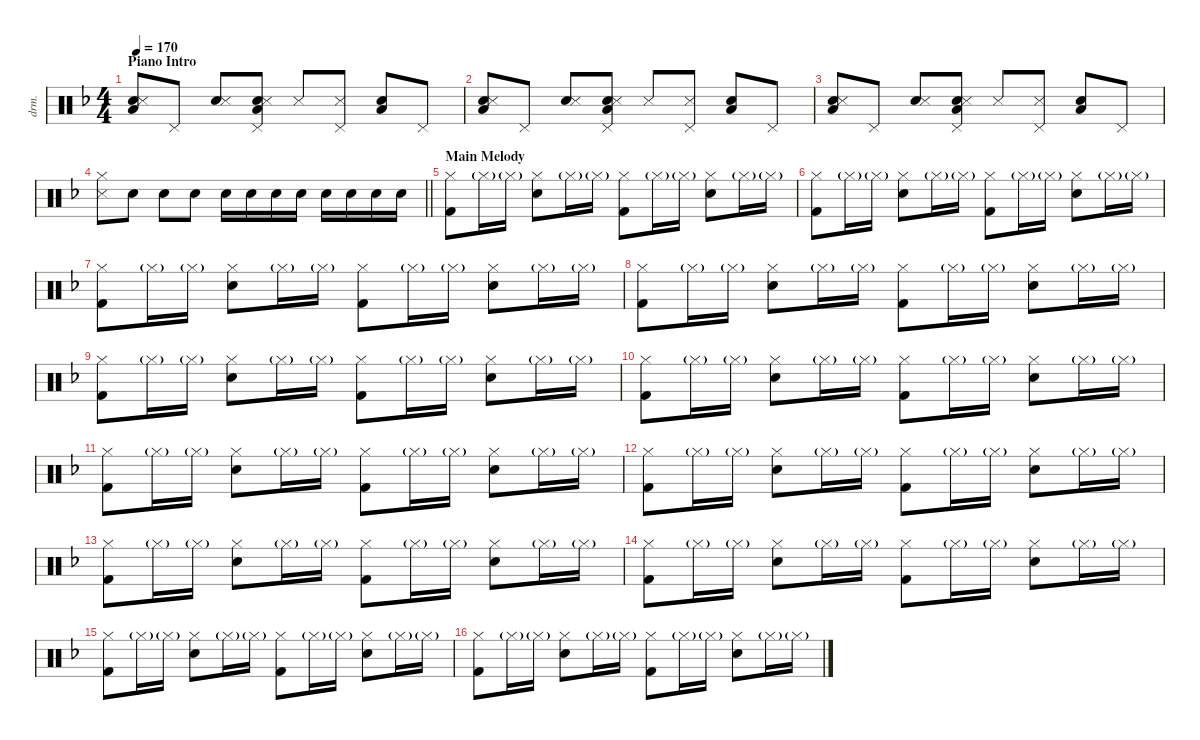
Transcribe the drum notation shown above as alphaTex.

\defaultSystemsLayout 4
\hideDynamics
\bracketExtendMode nobrackets
\otherSystemsTrackNameOrientation horizontal
\track ("Drums" "drm.") {instrument percussion}
\staff {score}
\articulation defaults
\ts (4 4)
\beaming (8 2 2 2 2)
\section ("" "Piano Intro")
\tempo 170
\clef neutral
\ks dminor
("Low Floor Tom (hit)"{acc forcenatural} "Hand Clap (hit)"{acc forcenatural} "Snare (side stick) 3"{acc forcenatural}).8{dy f} "Pedal Hi-Hat (hit)"{acc forcenatural}.8 ("Hand Clap (hit)"{acc forcenatural} "Snare (side stick) 3"{acc forcenatural}).8 ("Pedal Hi-Hat (hit)"{acc forcenatural} "Low Floor Tom (hit)"{acc forcenatural} "Hand Clap (hit)"{acc forcenatural} "Snare (side stick) 3"{acc forcenatural}).8 "Snare (side stick) 3"{acc forcenatural}.8 ("Pedal Hi-Hat (hit)"{acc forcenatural} "Snare (side stick) 3"{acc forcenatural}).8 ("Low Floor Tom (hit)"{acc forcenatural} "Hand Clap (hit)"{acc forcenatural}).8 "Pedal Hi-Hat (hit)"{acc forcenatural}.8 |
("Low Floor Tom (hit)"{acc forcenatural} "Hand Clap (hit)"{acc forcenatural} "Snare (side stick) 3"{acc forcenatural}).8 "Pedal Hi-Hat (hit)"{acc forcenatural}.8 ("Hand Clap (hit)"{acc forcenatural} "Snare (side stick) 3"{acc forcenatural}).8 ("Pedal Hi-Hat (hit)"{acc forcenatural} "Low Floor Tom (hit)"{acc forcenatural} "Hand Clap (hit)"{acc forcenatural} "Snare (side stick) 3"{acc forcenatural}).8 "Snare (side stick) 3"{acc forcenatural}.8 ("Pedal Hi-Hat (hit)"{acc forcenatural} "Snare (side stick) 3"{acc forcenatural}).8 ("Low Floor Tom (hit)"{acc forcenatural} "Hand Clap (hit)"{acc forcenatural}).8 "Pedal Hi-Hat (hit)"{acc forcenatural}.8 |
("Low Floor Tom (hit)"{acc forcenatural} "Hand Clap (hit)"{acc forcenatural} "Snare (side stick) 3"{acc forcenatural}).8 "Pedal Hi-Hat (hit)"{acc forcenatural}.8 ("Hand Clap (hit)"{acc forcenatural} "Snare (side stick) 3"{acc forcenatural}).8 ("Pedal Hi-Hat (hit)"{acc forcenatural} "Low Floor Tom (hit)"{acc forcenatural} "Hand Clap (hit)"{acc forcenatural} "Snare (side stick) 3"{acc forcenatural}).8 "Snare (side stick) 3"{acc forcenatural}.8 ("Pedal Hi-Hat (hit)"{acc forcenatural} "Snare (side stick) 3"{acc forcenatural}).8 ("Low Floor Tom (hit)"{acc forcenatural} "Hand Clap (hit)"{acc forcenatural}).8 "Pedal Hi-Hat (hit)"{acc forcenatural}.8 |
\barLineRight lightlight
("Hi-Hat (closed)"{acc forcenatural} "Snare (side stick) 3"{acc forcenatural}).8 "Snare (hit) 2"{acc forcenatural}.8 "Snare (hit) 2"{acc forcenatural}.8 "Snare (hit) 2"{acc forcenatural}.8 "Snare (hit) 2"{acc forcenatural}.16 "Snare (hit) 2"{acc forcenatural}.16 "Snare (hit) 2"{acc forcenatural}.16 "Snare (hit) 2"{acc forcenatural}.16 "Snare (hit) 2"{acc forcenatural}.16 "Snare (hit) 2"{acc forcenatural}.16 "Snare (hit) 2"{acc forcenatural}.16 "Snare (hit) 2"{acc forcenatural}.16 |
\section ("" "Main Melody")
("Hi-Hat (closed)"{acc forcenatural} "Kick (hit) 2"{acc forcenatural}).8 "Hi-Hat (closed)"{g acc forcenatural}.16{dy mf} "Hi-Hat (closed)"{g acc forcenatural}.16 ("Hi-Hat (closed)"{acc forcenatural} "Snare (hit) 2"{acc forcenatural}).8{dy mp} "Hi-Hat (closed)"{g acc forcenatural}.16{dy mf} "Hi-Hat (closed)"{g acc forcenatural}.16 ("Hi-Hat (closed)"{acc forcenatural} "Kick (hit) 2"{acc forcenatural}).8{dy f} "Hi-Hat (closed)"{g acc forcenatural}.16{dy mf} "Hi-Hat (closed)"{g acc forcenatural}.16 ("Hi-Hat (closed)"{acc forcenatural} "Snare (hit) 2"{acc forcenatural}).8{dy mp} "Hi-Hat (closed)"{g acc forcenatural}.16{dy mf} "Hi-Hat (closed)"{g acc forcenatural}.16 |
("Hi-Hat (closed)"{acc forcenatural} "Kick (hit) 2"{acc forcenatural}).8{dy f} "Hi-Hat (closed)"{g acc forcenatural}.16{dy mf} "Hi-Hat (closed)"{g acc forcenatural}.16 ("Hi-Hat (closed)"{acc forcenatural} "Snare (hit) 2"{acc forcenatural}).8{dy mp} "Hi-Hat (closed)"{g acc forcenatural}.16{dy mf} "Hi-Hat (closed)"{g acc forcenatural}.16 ("Hi-Hat (closed)"{acc forcenatural} "Kick (hit) 2"{acc forcenatural}).8{dy f} "Hi-Hat (closed)"{g acc forcenatural}.16{dy mf} "Hi-Hat (closed)"{g acc forcenatural}.16 ("Hi-Hat (closed)"{acc forcenatural} "Snare (hit) 2"{acc forcenatural}).8{dy mp} "Hi-Hat (closed)"{g acc forcenatural}.16{dy mf} "Hi-Hat (closed)"{g acc forcenatural}.16 |
("Hi-Hat (closed)"{acc forcenatural} "Kick (hit) 2"{acc forcenatural}).8{dy f} "Hi-Hat (closed)"{g acc forcenatural}.16{dy mf} "Hi-Hat (closed)"{g acc forcenatural}.16 ("Hi-Hat (closed)"{acc forcenatural} "Snare (hit) 2"{acc forcenatural}).8{dy mp} "Hi-Hat (closed)"{g acc forcenatural}.16{dy mf} "Hi-Hat (closed)"{g acc forcenatural}.16 ("Hi-Hat (closed)"{acc forcenatural} "Kick (hit) 2"{acc forcenatural}).8{dy f} "Hi-Hat (closed)"{g acc forcenatural}.16{dy mf} "Hi-Hat (closed)"{g acc forcenatural}.16 ("Hi-Hat (closed)"{acc forcenatural} "Snare (hit) 2"{acc forcenatural}).8{dy mp} "Hi-Hat (closed)"{g acc forcenatural}.16{dy mf} "Hi-Hat (closed)"{g acc forcenatural}.16 |
("Hi-Hat (closed)"{acc forcenatural} "Kick (hit) 2"{acc forcenatural}).8{dy f} "Hi-Hat (closed)"{g acc forcenatural}.16{dy mf} "Hi-Hat (closed)"{g acc forcenatural}.16 ("Hi-Hat (closed)"{acc forcenatural} "Snare (hit) 2"{acc forcenatural}).8{dy mp} "Hi-Hat (closed)"{g acc forcenatural}.16{dy mf} "Hi-Hat (closed)"{g acc forcenatural}.16 ("Hi-Hat (closed)"{acc forcenatural} "Kick (hit) 2"{acc forcenatural}).8{dy f} "Hi-Hat (closed)"{g acc forcenatural}.16{dy mf} "Hi-Hat (closed)"{g acc forcenatural}.16 ("Hi-Hat (closed)"{acc forcenatural} "Snare (hit) 2"{acc forcenatural}).8{dy mp} "Hi-Hat (closed)"{g acc forcenatural}.16{dy mf} "Hi-Hat (closed)"{g acc forcenatural}.16 |
("Hi-Hat (closed)"{acc forcenatural} "Kick (hit) 2"{acc forcenatural}).8{dy f} "Hi-Hat (closed)"{g acc forcenatural}.16{dy mf} "Hi-Hat (closed)"{g acc forcenatural}.16 ("Hi-Hat (closed)"{acc forcenatural} "Snare (hit) 2"{acc forcenatural}).8{dy mp} "Hi-Hat (closed)"{g acc forcenatural}.16{dy mf} "Hi-Hat (closed)"{g acc forcenatural}.16 ("Hi-Hat (closed)"{acc forcenatural} "Kick (hit) 2"{acc forcenatural}).8{dy f} "Hi-Hat (closed)"{g acc forcenatural}.16{dy mf} "Hi-Hat (closed)"{g acc forcenatural}.16 ("Hi-Hat (closed)"{acc forcenatural} "Snare (hit) 2"{acc forcenatural}).8{dy mp} "Hi-Hat (closed)"{g acc forcenatural}.16{dy mf} "Hi-Hat (closed)"{g acc forcenatural}.16 |
("Hi-Hat (closed)"{acc forcenatural} "Kick (hit) 2"{acc forcenatural}).8{dy f} "Hi-Hat (closed)"{g acc forcenatural}.16{dy mf} "Hi-Hat (closed)"{g acc forcenatural}.16 ("Hi-Hat (closed)"{acc forcenatural} "Snare (hit) 2"{acc forcenatural}).8{dy mp} "Hi-Hat (closed)"{g acc forcenatural}.16{dy mf} "Hi-Hat (closed)"{g acc forcenatural}.16 ("Hi-Hat (closed)"{acc forcenatural} "Kick (hit) 2"{acc forcenatural}).8{dy f} "Hi-Hat (closed)"{g acc forcenatural}.16{dy mf} "Hi-Hat (closed)"{g acc forcenatural}.16 ("Hi-Hat (closed)"{acc forcenatural} "Snare (hit) 2"{acc forcenatural}).8{dy mp} "Hi-Hat (closed)"{g acc forcenatural}.16{dy mf} "Hi-Hat (closed)"{g acc forcenatural}.16 |
("Hi-Hat (closed)"{acc forcenatural} "Kick (hit) 2"{acc forcenatural}).8{dy f} "Hi-Hat (closed)"{g acc forcenatural}.16{dy mf} "Hi-Hat (closed)"{g acc forcenatural}.16 ("Hi-Hat (closed)"{acc forcenatural} "Snare (hit) 2"{acc forcenatural}).8{dy mp} "Hi-Hat (closed)"{g acc forcenatural}.16{dy mf} "Hi-Hat (closed)"{g acc forcenatural}.16 ("Hi-Hat (closed)"{acc forcenatural} "Kick (hit) 2"{acc forcenatural}).8{dy f} "Hi-Hat (closed)"{g acc forcenatural}.16{dy mf} "Hi-Hat (closed)"{g acc forcenatural}.16 ("Hi-Hat (closed)"{acc forcenatural} "Snare (hit) 2"{acc forcenatural}).8{dy mp} "Hi-Hat (closed)"{g acc forcenatural}.16{dy mf} "Hi-Hat (closed)"{g acc forcenatural}.16 |
("Hi-Hat (closed)"{acc forcenatural} "Kick (hit) 2"{acc forcenatural}).8{dy f} "Hi-Hat (closed)"{g acc forcenatural}.16{dy mf} "Hi-Hat (closed)"{g acc forcenatural}.16 ("Hi-Hat (closed)"{acc forcenatural} "Snare (hit) 2"{acc forcenatural}).8{dy mp} "Hi-Hat (closed)"{g acc forcenatural}.16{dy mf} "Hi-Hat (closed)"{g acc forcenatural}.16 ("Hi-Hat (closed)"{acc forcenatural} "Kick (hit) 2"{acc forcenatural}).8{dy f} "Hi-Hat (closed)"{g acc forcenatural}.16{dy mf} "Hi-Hat (closed)"{g acc forcenatural}.16 ("Hi-Hat (closed)"{acc forcenatural} "Snare (hit) 2"{acc forcenatural}).8{dy mp} "Hi-Hat (closed)"{g acc forcenatural}.16{dy mf} "Hi-Hat (closed)"{g acc forcenatural}.16 |
("Hi-Hat (closed)"{acc forcenatural} "Kick (hit) 2"{acc forcenatural}).8{dy f} "Hi-Hat (closed)"{g acc forcenatural}.16{dy mf} "Hi-Hat (closed)"{g acc forcenatural}.16 ("Hi-Hat (closed)"{acc forcenatural} "Snare (hit) 2"{acc forcenatural}).8{dy mp} "Hi-Hat (closed)"{g acc forcenatural}.16{dy mf} "Hi-Hat (closed)"{g acc forcenatural}.16 ("Hi-Hat (closed)"{acc forcenatural} "Kick (hit) 2"{acc forcenatural}).8{dy f} "Hi-Hat (closed)"{g acc forcenatural}.16{dy mf} "Hi-Hat (closed)"{g acc forcenatural}.16 ("Hi-Hat (closed)"{acc forcenatural} "Snare (hit) 2"{acc forcenatural}).8{dy mp} "Hi-Hat (closed)"{g acc forcenatural}.16{dy mf} "Hi-Hat (closed)"{g acc forcenatural}.16 |
("Hi-Hat (closed)"{acc forcenatural} "Kick (hit) 2"{acc forcenatural}).8{dy f} "Hi-Hat (closed)"{g acc forcenatural}.16{dy mf} "Hi-Hat (closed)"{g acc forcenatural}.16 ("Hi-Hat (closed)"{acc forcenatural} "Snare (hit) 2"{acc forcenatural}).8{dy mp} "Hi-Hat (closed)"{g acc forcenatural}.16{dy mf} "Hi-Hat (closed)"{g acc forcenatural}.16 ("Hi-Hat (closed)"{acc forcenatural} "Kick (hit) 2"{acc forcenatural}).8{dy f} "Hi-Hat (closed)"{g acc forcenatural}.16{dy mf} "Hi-Hat (closed)"{g acc forcenatural}.16 ("Hi-Hat (closed)"{acc forcenatural} "Snare (hit) 2"{acc forcenatural}).8{dy mp} "Hi-Hat (closed)"{g acc forcenatural}.16{dy mf} "Hi-Hat (closed)"{g acc forcenatural}.16 |
("Hi-Hat (closed)"{acc forcenatural} "Kick (hit) 2"{acc forcenatural}).8{dy f} "Hi-Hat (closed)"{g acc forcenatural}.16{dy mf} "Hi-Hat (closed)"{g acc forcenatural}.16 ("Hi-Hat (closed)"{acc forcenatural} "Snare (hit) 2"{acc forcenatural}).8{dy mp} "Hi-Hat (closed)"{g acc forcenatural}.16{dy mf} "Hi-Hat (closed)"{g acc forcenatural}.16 ("Hi-Hat (closed)"{acc forcenatural} "Kick (hit) 2"{acc forcenatural}).8{dy f} "Hi-Hat (closed)"{g acc forcenatural}.16{dy mf} "Hi-Hat (closed)"{g acc forcenatural}.16 ("Hi-Hat (closed)"{acc forcenatural} "Snare (hit) 2"{acc forcenatural}).8{dy mp} "Hi-Hat (closed)"{g acc forcenatural}.16{dy mf} "Hi-Hat (closed)"{g acc forcenatural}.16 |
("Hi-Hat (closed)"{acc forcenatural} "Kick (hit) 2"{acc forcenatural}).8{dy f} "Hi-Hat (closed)"{g acc forcenatural}.16{dy mf} "Hi-Hat (closed)"{g acc forcenatural}.16 ("Hi-Hat (closed)"{acc forcenatural} "Snare (hit) 2"{acc forcenatural}).8{dy mp} "Hi-Hat (closed)"{g acc forcenatural}.16{dy mf} "Hi-Hat (closed)"{g acc forcenatural}.16 ("Hi-Hat (closed)"{acc forcenatural} "Kick (hit) 2"{acc forcenatural}).8{dy f} "Hi-Hat (closed)"{g acc forcenatural}.16{dy mf} "Hi-Hat (closed)"{g acc forcenatural}.16 ("Hi-Hat (closed)"{acc forcenatural} "Snare (hit) 2"{acc forcenatural}).8{dy mp} "Hi-Hat (closed)"{g acc forcenatural}.16{dy mf} "Hi-Hat (closed)"{g acc forcenatural}.16
